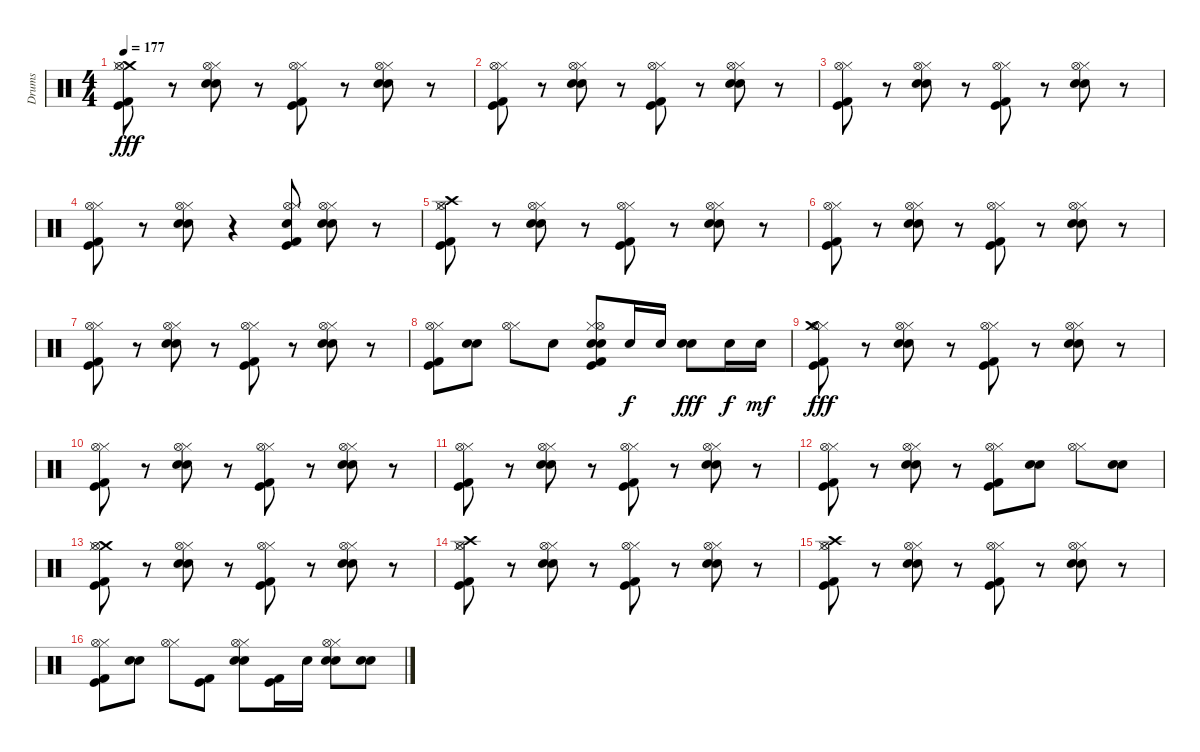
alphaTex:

\track ("Drums" "Drums") {instrument percussion}
\staff {score}
\articulation defaults
\ts (4 4)
\tempo 177
\clef neutral
\ks c
("Crash medium (hit)" "Kick (hit) 2" "Kick (hit)" "Hi-Hat (closed)" "Hi-Hat (open)").8{dy fff} r.8 ("Electric Snare (hit)" "Snare (hit) 2" "Hi-Hat (closed)" "Hi-Hat (open)").8 r.8 ("Kick (hit) 2" "Kick (hit)" "Hi-Hat (closed)" "Hi-Hat (open)").8 r.8 ("Electric Snare (hit)" "Snare (hit) 2" "Hi-Hat (closed)" "Hi-Hat (open)").8 r.8 |
("Kick (hit) 2" "Kick (hit)" "Hi-Hat (closed)" "Hi-Hat (open)").8 r.8 ("Electric Snare (hit)" "Snare (hit) 2" "Hi-Hat (closed)" "Hi-Hat (open)").8 r.8 ("Kick (hit) 2" "Kick (hit)" "Hi-Hat (closed)" "Hi-Hat (open)").8 r.8 ("Electric Snare (hit)" "Snare (hit) 2" "Hi-Hat (closed)" "Hi-Hat (open)").8 r.8 |
("Kick (hit) 2" "Kick (hit)" "Hi-Hat (closed)" "Hi-Hat (open)").8 r.8 ("Electric Snare (hit)" "Snare (hit) 2" "Hi-Hat (closed)" "Hi-Hat (open)").8 r.8 ("Kick (hit) 2" "Kick (hit)" "Hi-Hat (closed)" "Hi-Hat (open)").8 r.8 ("Electric Snare (hit)" "Snare (hit) 2" "Hi-Hat (closed)" "Hi-Hat (open)").8 r.8 |
("Kick (hit) 2" "Kick (hit)" "Hi-Hat (closed)" "Hi-Hat (open)").8 r.8 ("Hi-Hat (closed)" "Electric Snare (hit)" "Snare (hit) 2" "Hi-Hat (open)").8 r.4 ("Electric Snare (hit)" "Hi-Hat (open)" "Hi-Hat (closed)" "Kick (hit) 2" "Kick (hit)").8 ("Hi-Hat (closed)" "Electric Snare (hit)" "Snare (hit) 2" "Hi-Hat (open)").8 r.8 |
("Kick (hit) 2" "Kick (hit)" "Hi-Hat (closed)" "Hi-Hat (open)" "Crash high (hit)").8 r.8 ("Electric Snare (hit)" "Snare (hit) 2" "Hi-Hat (closed)" "Hi-Hat (open)").8 r.8 ("Kick (hit) 2" "Kick (hit)" "Hi-Hat (closed)" "Hi-Hat (open)").8 r.8 ("Electric Snare (hit)" "Snare (hit) 2" "Hi-Hat (closed)" "Hi-Hat (open)").8 r.8 |
("Kick (hit) 2" "Kick (hit)" "Hi-Hat (closed)" "Hi-Hat (open)").8 r.8 ("Electric Snare (hit)" "Snare (hit) 2" "Hi-Hat (closed)" "Hi-Hat (open)").8 r.8 ("Kick (hit) 2" "Kick (hit)" "Hi-Hat (closed)" "Hi-Hat (open)").8 r.8 ("Electric Snare (hit)" "Snare (hit) 2" "Hi-Hat (closed)" "Hi-Hat (open)").8 r.8 |
("Kick (hit) 2" "Kick (hit)" "Hi-Hat (closed)" "Hi-Hat (open)").8 r.8 ("Electric Snare (hit)" "Snare (hit) 2" "Hi-Hat (closed)" "Hi-Hat (open)").8 r.8 ("Kick (hit) 2" "Kick (hit)" "Hi-Hat (closed)" "Hi-Hat (open)").8 r.8 ("Electric Snare (hit)" "Snare (hit) 2" "Hi-Hat (closed)" "Hi-Hat (open)").8 r.8 |
("Kick (hit) 2" "Kick (hit)" "Hi-Hat (closed)" "Hi-Hat (open)").8 ("Electric Snare (hit)" "Snare (hit) 2").8 ("Hi-Hat (closed)" "Hi-Hat (open)").8 "Snare (hit) 2".8 ("Kick (hit) 2" "Kick (hit)" "Hi-Hat (closed)" "Hi-Hat (open)" "Electric Snare (hit)" "Snare (hit) 2").8 "Electric Snare (hit)".16{dy f} "Electric Snare (hit)".16 ("Electric Snare (hit)" "Snare (hit) 2").8{dy fff} "Electric Snare (hit)".16{dy f} "Electric Snare (hit)".16{dy mf} |
("Kick (hit) 2" "Kick (hit)" "Hi-Hat (closed)" "Hi-Hat (open)" "Crash medium (hit)").8{dy fff} r.8 ("Electric Snare (hit)" "Snare (hit) 2" "Hi-Hat (closed)" "Hi-Hat (open)").8 r.8 ("Kick (hit) 2" "Kick (hit)" "Hi-Hat (closed)" "Hi-Hat (open)").8 r.8 ("Electric Snare (hit)" "Snare (hit) 2" "Hi-Hat (closed)" "Hi-Hat (open)").8 r.8 |
("Kick (hit) 2" "Kick (hit)" "Hi-Hat (closed)" "Hi-Hat (open)").8 r.8 ("Electric Snare (hit)" "Snare (hit) 2" "Hi-Hat (closed)" "Hi-Hat (open)").8 r.8 ("Kick (hit) 2" "Kick (hit)" "Hi-Hat (closed)" "Hi-Hat (open)").8 r.8 ("Electric Snare (hit)" "Snare (hit) 2" "Hi-Hat (closed)" "Hi-Hat (open)").8 r.8 |
("Kick (hit) 2" "Kick (hit)" "Hi-Hat (closed)" "Hi-Hat (open)").8 r.8 ("Electric Snare (hit)" "Snare (hit) 2" "Hi-Hat (closed)" "Hi-Hat (open)").8 r.8 ("Kick (hit) 2" "Kick (hit)" "Hi-Hat (closed)" "Hi-Hat (open)").8 r.8 ("Electric Snare (hit)" "Snare (hit) 2" "Hi-Hat (closed)" "Hi-Hat (open)").8 r.8 |
("Kick (hit) 2" "Kick (hit)" "Hi-Hat (closed)" "Hi-Hat (open)").8 r.8 ("Electric Snare (hit)" "Snare (hit) 2" "Hi-Hat (closed)" "Hi-Hat (open)").8 r.8 ("Kick (hit) 2" "Kick (hit)" "Hi-Hat (closed)" "Hi-Hat (open)").8 ("Electric Snare (hit)" "Snare (hit) 2").8 ("Hi-Hat (closed)" "Hi-Hat (open)").8 ("Electric Snare (hit)" "Snare (hit) 2").8 |
("Crash medium (hit)" "Kick (hit) 2" "Kick (hit)" "Hi-Hat (closed)" "Hi-Hat (open)").8 r.8 ("Electric Snare (hit)" "Snare (hit) 2" "Hi-Hat (closed)" "Hi-Hat (open)").8 r.8 ("Kick (hit) 2" "Kick (hit)" "Hi-Hat (closed)" "Hi-Hat (open)").8 r.8 ("Electric Snare (hit)" "Snare (hit) 2" "Hi-Hat (closed)" "Hi-Hat (open)").8 r.8 |
("Crash high (hit)" "Kick (hit) 2" "Kick (hit)" "Hi-Hat (closed)" "Hi-Hat (open)").8 r.8 ("Electric Snare (hit)" "Snare (hit) 2" "Hi-Hat (closed)" "Hi-Hat (open)").8 r.8 ("Kick (hit) 2" "Kick (hit)" "Hi-Hat (closed)" "Hi-Hat (open)").8 r.8 ("Electric Snare (hit)" "Snare (hit) 2" "Hi-Hat (closed)" "Hi-Hat (open)").8 r.8 |
("Crash high (hit)" "Kick (hit) 2" "Kick (hit)" "Hi-Hat (closed)" "Hi-Hat (open)").8 r.8 ("Electric Snare (hit)" "Snare (hit) 2" "Hi-Hat (closed)" "Hi-Hat (open)").8 r.8 ("Kick (hit) 2" "Kick (hit)" "Hi-Hat (closed)" "Hi-Hat (open)").8 r.8 ("Electric Snare (hit)" "Snare (hit) 2" "Hi-Hat (closed)" "Hi-Hat (open)").8 r.8 |
("Kick (hit) 2" "Kick (hit)" "Hi-Hat (closed)" "Hi-Hat (open)").8 ("Electric Snare (hit)" "Snare (hit) 2").8 ("Hi-Hat (closed)" "Hi-Hat (open)").8 ("Kick (hit) 2" "Kick (hit)").8 ("Electric Snare (hit)" "Snare (hit) 2" "Hi-Hat (closed)" "Hi-Hat (open)").8 ("Kick (hit) 2" "Kick (hit)").16 "Electric Snare (hit)".16 ("Electric Snare (hit)" "Snare (hit) 2" "Hi-Hat (closed)" "Hi-Hat (open)").8 ("Electric Snare (hit)" "Snare (hit) 2").8
